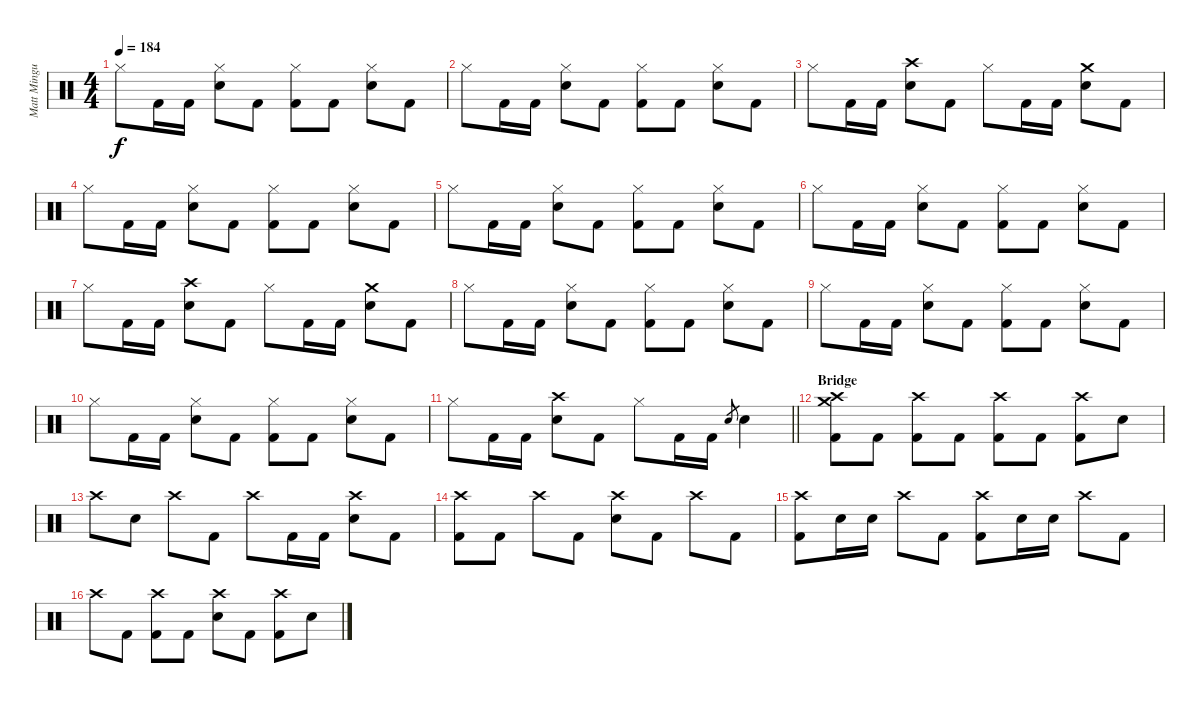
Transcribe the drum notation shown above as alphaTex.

\track ("Matt Mingus (Drums)" "Matt Mingu") {instrument percussion}
\staff {score}
\articulation defaults
\ts (4 4)
\tempo 184
\clef neutral
\ks c "Hi-Hat (closed)".8{dy f} "Kick (hit) 2".16 "Kick (hit) 2".16
("Hi-Hat (closed)" "Electric Snare (hit)").8 "Kick (hit) 2".8 ("Hi-Hat (closed)" "Kick (hit) 2").8 "Kick (hit) 2".8 ("Hi-Hat (closed)" "Electric Snare (hit)").8 "Kick (hit) 2".8 |
"Hi-Hat (closed)".8 "Kick (hit) 2".16 "Kick (hit) 2".16 ("Hi-Hat (closed)" "Electric Snare (hit)").8 "Kick (hit) 2".8 ("Hi-Hat (closed)" "Kick (hit) 2").8 "Kick (hit) 2".8 ("Hi-Hat (closed)" "Electric Snare (hit)").8 "Kick (hit) 2".8 |
"Hi-Hat (closed)".8 "Kick (hit) 2".16 "Kick (hit) 2".16 ("Crash high (hit)" "Electric Snare (hit)").8 "Kick (hit) 2".8 "Hi-Hat (closed)".8 "Kick (hit) 2".16 "Kick (hit) 2".16 ("Crash medium (hit)" "Electric Snare (hit)").8 "Kick (hit) 2".8 |
"Hi-Hat (closed)".8 "Kick (hit) 2".16 "Kick (hit) 2".16 ("Hi-Hat (closed)" "Electric Snare (hit)").8 "Kick (hit) 2".8 ("Hi-Hat (closed)" "Kick (hit) 2").8 "Kick (hit) 2".8 ("Hi-Hat (closed)" "Electric Snare (hit)").8 "Kick (hit) 2".8 |
"Hi-Hat (closed)".8 "Kick (hit) 2".16 "Kick (hit) 2".16 ("Hi-Hat (closed)" "Electric Snare (hit)").8 "Kick (hit) 2".8 ("Hi-Hat (closed)" "Kick (hit) 2").8 "Kick (hit) 2".8 ("Hi-Hat (closed)" "Electric Snare (hit)").8 "Kick (hit) 2".8 |
"Hi-Hat (closed)".8 "Kick (hit) 2".16 "Kick (hit) 2".16 ("Hi-Hat (closed)" "Electric Snare (hit)").8 "Kick (hit) 2".8 ("Hi-Hat (closed)" "Kick (hit) 2").8 "Kick (hit) 2".8 ("Hi-Hat (closed)" "Electric Snare (hit)").8 "Kick (hit) 2".8 |
"Hi-Hat (closed)".8 "Kick (hit) 2".16 "Kick (hit) 2".16 ("Crash high (hit)" "Electric Snare (hit)").8 "Kick (hit) 2".8 "Hi-Hat (closed)".8 "Kick (hit) 2".16 "Kick (hit) 2".16 ("Crash medium (hit)" "Electric Snare (hit)").8 "Kick (hit) 2".8 |
"Hi-Hat (closed)".8 "Kick (hit) 2".16 "Kick (hit) 2".16 ("Hi-Hat (closed)" "Electric Snare (hit)").8 "Kick (hit) 2".8 ("Hi-Hat (closed)" "Kick (hit) 2").8 "Kick (hit) 2".8 ("Hi-Hat (closed)" "Electric Snare (hit)").8 "Kick (hit) 2".8 |
"Hi-Hat (closed)".8 "Kick (hit) 2".16 "Kick (hit) 2".16 ("Hi-Hat (closed)" "Electric Snare (hit)").8 "Kick (hit) 2".8 ("Hi-Hat (closed)" "Kick (hit) 2").8 "Kick (hit) 2".8 ("Hi-Hat (closed)" "Electric Snare (hit)").8 "Kick (hit) 2".8 |
"Hi-Hat (closed)".8 "Kick (hit) 2".16 "Kick (hit) 2".16 ("Hi-Hat (closed)" "Electric Snare (hit)").8 "Kick (hit) 2".8 ("Hi-Hat (closed)" "Kick (hit) 2").8 "Kick (hit) 2".8 ("Hi-Hat (closed)" "Electric Snare (hit)").8 "Kick (hit) 2".8 |
\barLineRight lightlight "Hi-Hat (closed)".8 "Kick (hit) 2".16 "Kick (hit) 2".16
("Crash high (hit)" "Electric Snare (hit)").8 "Kick (hit) 2".8 "Hi-Hat (closed)".8 "Kick (hit) 2".16 "Kick (hit) 2".16 "Electric Snare (hit)".8{gr} "Electric Snare (hit)".4 |
\section ("" "Bridge")
("Crash medium (hit)" "Crash high (hit)" "Kick (hit) 2").8 "Kick (hit) 2".8 ("Crash high (hit)" "Kick (hit) 2").8 "Kick (hit) 2".8 ("Crash high (hit)" "Kick (hit) 2").8 "Kick (hit) 2".8 ("Crash high (hit)" "Kick (hit) 2").8 "Electric Snare (hit)".8 |
"Crash high (hit)".8 "Electric Snare (hit)".8 "Crash high (hit)".8 "Kick (hit) 2".8 "Crash high (hit)".8 "Kick (hit) 2".16 "Kick (hit) 2".16 ("Crash high (hit)" "Electric Snare (hit)").8 "Kick (hit) 2".8 |
("Crash high (hit)" "Kick (hit) 2").8 "Kick (hit) 2".8 "Crash high (hit)".8 "Kick (hit) 2".8 ("Crash high (hit)" "Electric Snare (hit)").8 "Kick (hit) 2".8 "Crash high (hit)".8 "Kick (hit) 2".8 |
("Crash high (hit)" "Kick (hit) 2").8 "Electric Snare (hit)".16 "Electric Snare (hit)".16 "Crash high (hit)".8 "Kick (hit) 2".8 ("Crash high (hit)" "Kick (hit) 2").8 "Electric Snare (hit)".16 "Electric Snare (hit)".16 "Crash high (hit)".8 "Kick (hit) 2".8 |
"Crash high (hit)".8 "Kick (hit) 2".8 ("Crash high (hit)" "Kick (hit) 2").8 "Kick (hit) 2".8 ("Crash high (hit)" "Electric Snare (hit)").8 "Kick (hit) 2".8 ("Crash high (hit)" "Kick (hit) 2").8 "Electric Snare (hit)".8
